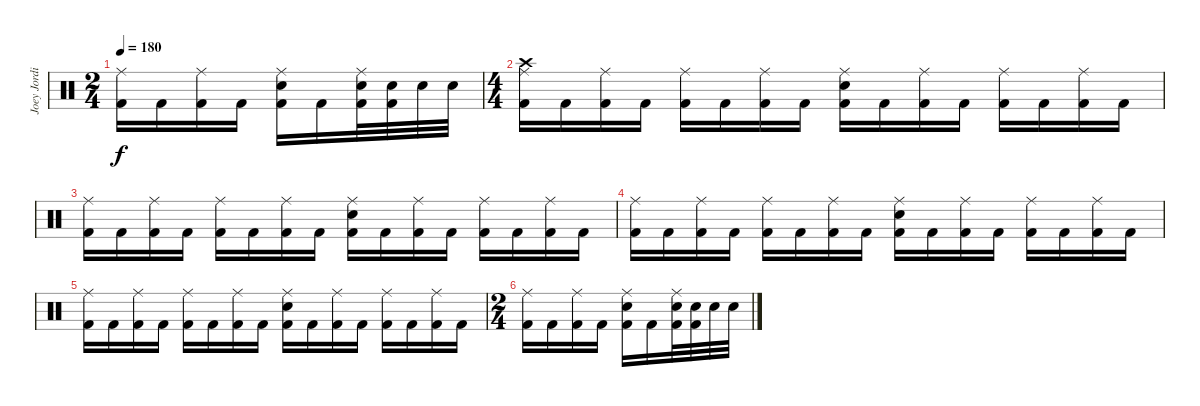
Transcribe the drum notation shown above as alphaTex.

\track ("Joey Jordison" "Joey Jordi") {instrument percussion}
\staff {score}
\articulation defaults
\ts (2 4)
\tempo 180
\clef neutral
\ks c
("Ride (middle)" "Kick (hit) 2").16{dy f} "Kick (hit) 2".16 ("Ride (middle)" "Kick (hit) 2").16 "Kick (hit) 2".16 ("Ride (middle)" "Electric Snare (hit)" "Kick (hit) 2").16 "Kick (hit) 2".16 ("Ride (middle)" "Electric Snare (hit)" "Kick (hit) 2").32 ("Electric Snare (hit)" "Kick (hit) 2").32 "Electric Snare (hit)".32 "Electric Snare (hit)".32 |
\ts (4 4)
("Crash high (hit)" "Ride (middle)" "Kick (hit) 2").16 "Kick (hit) 2".16 ("Ride (middle)" "Kick (hit) 2").16 "Kick (hit) 2".16 ("Ride (middle)" "Kick (hit) 2").16 "Kick (hit) 2".16 ("Ride (middle)" "Kick (hit) 2").16 "Kick (hit) 2".16 ("Ride (middle)" "Electric Snare (hit)" "Kick (hit) 2").16 "Kick (hit) 2".16 ("Ride (middle)" "Kick (hit) 2").16 "Kick (hit) 2".16 ("Ride (middle)" "Kick (hit) 2").16 "Kick (hit) 2".16 ("Ride (middle)" "Kick (hit) 2").16 "Kick (hit) 2".16 |
("Ride (middle)" "Kick (hit) 2").16 "Kick (hit) 2".16 ("Ride (middle)" "Kick (hit) 2").16 "Kick (hit) 2".16 ("Ride (middle)" "Kick (hit) 2").16 "Kick (hit) 2".16 ("Ride (middle)" "Kick (hit) 2").16 "Kick (hit) 2".16 ("Ride (middle)" "Electric Snare (hit)" "Kick (hit) 2").16 "Kick (hit) 2".16 ("Ride (middle)" "Kick (hit) 2").16 "Kick (hit) 2".16 ("Ride (middle)" "Kick (hit) 2").16 "Kick (hit) 2".16 ("Ride (middle)" "Kick (hit) 2").16 "Kick (hit) 2".16 |
("Ride (middle)" "Kick (hit) 2").16 "Kick (hit) 2".16 ("Ride (middle)" "Kick (hit) 2").16 "Kick (hit) 2".16 ("Ride (middle)" "Kick (hit) 2").16 "Kick (hit) 2".16 ("Ride (middle)" "Kick (hit) 2").16 "Kick (hit) 2".16 ("Ride (middle)" "Electric Snare (hit)" "Kick (hit) 2").16 "Kick (hit) 2".16 ("Ride (middle)" "Kick (hit) 2").16 "Kick (hit) 2".16 ("Ride (middle)" "Kick (hit) 2").16 "Kick (hit) 2".16 ("Ride (middle)" "Kick (hit) 2").16 "Kick (hit) 2".16 |
("Ride (middle)" "Kick (hit) 2").16 "Kick (hit) 2".16 ("Ride (middle)" "Kick (hit) 2").16 "Kick (hit) 2".16 ("Ride (middle)" "Kick (hit) 2").16 "Kick (hit) 2".16 ("Ride (middle)" "Kick (hit) 2").16 "Kick (hit) 2".16 ("Ride (middle)" "Electric Snare (hit)" "Kick (hit) 2").16 "Kick (hit) 2".16 ("Ride (middle)" "Kick (hit) 2").16 "Kick (hit) 2".16 ("Ride (middle)" "Kick (hit) 2").16 "Kick (hit) 2".16 ("Ride (middle)" "Kick (hit) 2").16 "Kick (hit) 2".16 |
\ts (2 4)
("Ride (middle)" "Kick (hit) 2").16 "Kick (hit) 2".16 ("Ride (middle)" "Kick (hit) 2").16 "Kick (hit) 2".16 ("Ride (middle)" "Electric Snare (hit)" "Kick (hit) 2").16 "Kick (hit) 2".16 ("Ride (middle)" "Electric Snare (hit)" "Kick (hit) 2").32 ("Electric Snare (hit)" "Kick (hit) 2").32 "Electric Snare (hit)".32 "Electric Snare (hit)".32
